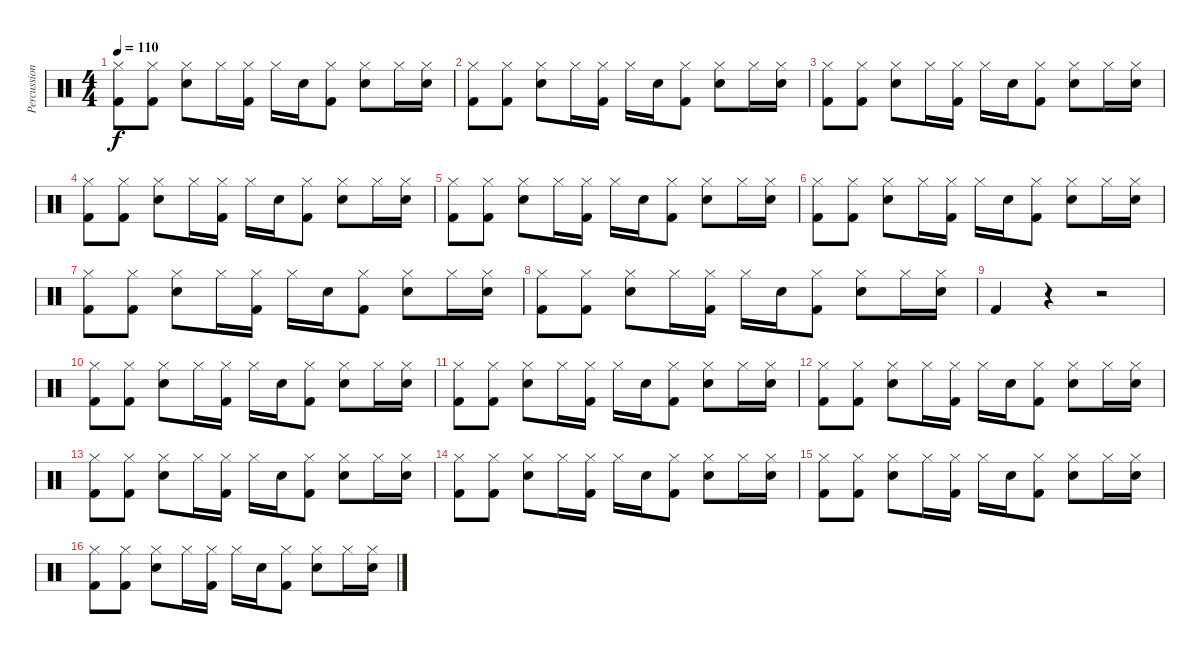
\track ("Percussion" "Percussion") {instrument percussion}
\staff {score}
\articulation defaults
\ts (4 4)
\tempo 110
\clef neutral
\ks c
("Hi-Hat (closed)" "Kick (hit) 2").8{dy f} ("Hi-Hat (closed)" "Kick (hit) 2").8 ("Hi-Hat (closed)" "Snare (hit) 2").8 "Hi-Hat (closed)".16 ("Hi-Hat (closed)" "Kick (hit) 2").16 "Hi-Hat (closed)".16 "Snare (hit) 2".16 ("Hi-Hat (closed)" "Kick (hit) 2").8 ("Hi-Hat (closed)" "Snare (hit) 2").8 "Hi-Hat (closed)".16 ("Hi-Hat (closed)" "Snare (hit) 2").16 |
("Hi-Hat (closed)" "Kick (hit) 2").8 ("Hi-Hat (closed)" "Kick (hit) 2").8 ("Hi-Hat (closed)" "Snare (hit) 2").8 "Hi-Hat (closed)".16 ("Hi-Hat (closed)" "Kick (hit) 2").16 "Hi-Hat (closed)".16 "Snare (hit) 2".16 ("Hi-Hat (closed)" "Kick (hit) 2").8 ("Hi-Hat (closed)" "Snare (hit) 2").8 "Hi-Hat (closed)".16 ("Hi-Hat (closed)" "Snare (hit) 2").16 |
("Hi-Hat (closed)" "Kick (hit) 2").8 ("Hi-Hat (closed)" "Kick (hit) 2").8 ("Hi-Hat (closed)" "Snare (hit) 2").8 "Hi-Hat (closed)".16 ("Hi-Hat (closed)" "Kick (hit) 2").16 "Hi-Hat (closed)".16 "Snare (hit) 2".16 ("Hi-Hat (closed)" "Kick (hit) 2").8 ("Hi-Hat (closed)" "Snare (hit) 2").8 "Hi-Hat (closed)".16 ("Hi-Hat (closed)" "Snare (hit) 2").16 |
("Hi-Hat (closed)" "Kick (hit) 2").8 ("Hi-Hat (closed)" "Kick (hit) 2").8 ("Hi-Hat (closed)" "Snare (hit) 2").8 "Hi-Hat (closed)".16 ("Hi-Hat (closed)" "Kick (hit) 2").16 "Hi-Hat (closed)".16 "Snare (hit) 2".16 ("Hi-Hat (closed)" "Kick (hit) 2").8 ("Hi-Hat (closed)" "Snare (hit) 2").8 "Hi-Hat (closed)".16 ("Hi-Hat (closed)" "Snare (hit) 2").16 |
("Hi-Hat (closed)" "Kick (hit) 2").8 ("Hi-Hat (closed)" "Kick (hit) 2").8 ("Hi-Hat (closed)" "Snare (hit) 2").8 "Hi-Hat (closed)".16 ("Hi-Hat (closed)" "Kick (hit) 2").16 "Hi-Hat (closed)".16 "Snare (hit) 2".16 ("Hi-Hat (closed)" "Kick (hit) 2").8 ("Hi-Hat (closed)" "Snare (hit) 2").8 "Hi-Hat (closed)".16 ("Hi-Hat (closed)" "Snare (hit) 2").16 |
("Hi-Hat (closed)" "Kick (hit) 2").8 ("Hi-Hat (closed)" "Kick (hit) 2").8 ("Hi-Hat (closed)" "Snare (hit) 2").8 "Hi-Hat (closed)".16 ("Hi-Hat (closed)" "Kick (hit) 2").16 "Hi-Hat (closed)".16 "Snare (hit) 2".16 ("Hi-Hat (closed)" "Kick (hit) 2").8 ("Hi-Hat (closed)" "Snare (hit) 2").8 "Hi-Hat (closed)".16 ("Hi-Hat (closed)" "Snare (hit) 2").16 |
("Hi-Hat (closed)" "Kick (hit) 2").8 ("Hi-Hat (closed)" "Kick (hit) 2").8 ("Hi-Hat (closed)" "Snare (hit) 2").8 "Hi-Hat (closed)".16 ("Hi-Hat (closed)" "Kick (hit) 2").16 "Hi-Hat (closed)".16 "Snare (hit) 2".16 ("Hi-Hat (closed)" "Kick (hit) 2").8 ("Hi-Hat (closed)" "Snare (hit) 2").8 "Hi-Hat (closed)".16 ("Hi-Hat (closed)" "Snare (hit) 2").16 |
("Hi-Hat (closed)" "Kick (hit) 2").8 ("Hi-Hat (closed)" "Kick (hit) 2").8 ("Hi-Hat (closed)" "Snare (hit) 2").8 "Hi-Hat (closed)".16 ("Hi-Hat (closed)" "Kick (hit) 2").16 "Hi-Hat (closed)".16 "Snare (hit) 2".16 ("Hi-Hat (closed)" "Kick (hit) 2").8 ("Hi-Hat (closed)" "Snare (hit) 2").8 "Hi-Hat (closed)".16 ("Hi-Hat (closed)" "Snare (hit) 2").16 |
"Kick (hit) 2".4 r.4 r.2 |
("Hi-Hat (closed)" "Kick (hit) 2").8 ("Hi-Hat (closed)" "Kick (hit) 2").8 ("Hi-Hat (closed)" "Snare (hit) 2").8 "Hi-Hat (closed)".16 ("Hi-Hat (closed)" "Kick (hit) 2").16 "Hi-Hat (closed)".16 "Snare (hit) 2".16 ("Hi-Hat (closed)" "Kick (hit) 2").8 ("Hi-Hat (closed)" "Snare (hit) 2").8 "Hi-Hat (closed)".16 ("Hi-Hat (closed)" "Snare (hit) 2").16 |
("Hi-Hat (closed)" "Kick (hit) 2").8 ("Hi-Hat (closed)" "Kick (hit) 2").8 ("Hi-Hat (closed)" "Snare (hit) 2").8 "Hi-Hat (closed)".16 ("Hi-Hat (closed)" "Kick (hit) 2").16 "Hi-Hat (closed)".16 "Snare (hit) 2".16 ("Hi-Hat (closed)" "Kick (hit) 2").8 ("Hi-Hat (closed)" "Snare (hit) 2").8 "Hi-Hat (closed)".16 ("Hi-Hat (closed)" "Snare (hit) 2").16 |
("Hi-Hat (closed)" "Kick (hit) 2").8 ("Hi-Hat (closed)" "Kick (hit) 2").8 ("Hi-Hat (closed)" "Snare (hit) 2").8 "Hi-Hat (closed)".16 ("Hi-Hat (closed)" "Kick (hit) 2").16 "Hi-Hat (closed)".16 "Snare (hit) 2".16 ("Hi-Hat (closed)" "Kick (hit) 2").8 ("Hi-Hat (closed)" "Snare (hit) 2").8 "Hi-Hat (closed)".16 ("Hi-Hat (closed)" "Snare (hit) 2").16 |
("Hi-Hat (closed)" "Kick (hit) 2").8 ("Hi-Hat (closed)" "Kick (hit) 2").8 ("Hi-Hat (closed)" "Snare (hit) 2").8 "Hi-Hat (closed)".16 ("Hi-Hat (closed)" "Kick (hit) 2").16 "Hi-Hat (closed)".16 "Snare (hit) 2".16 ("Hi-Hat (closed)" "Kick (hit) 2").8 ("Hi-Hat (closed)" "Snare (hit) 2").8 "Hi-Hat (closed)".16 ("Hi-Hat (closed)" "Snare (hit) 2").16 |
("Hi-Hat (closed)" "Kick (hit) 2").8 ("Hi-Hat (closed)" "Kick (hit) 2").8 ("Hi-Hat (closed)" "Snare (hit) 2").8 "Hi-Hat (closed)".16 ("Hi-Hat (closed)" "Kick (hit) 2").16 "Hi-Hat (closed)".16 "Snare (hit) 2".16 ("Hi-Hat (closed)" "Kick (hit) 2").8 ("Hi-Hat (closed)" "Snare (hit) 2").8 "Hi-Hat (closed)".16 ("Hi-Hat (closed)" "Snare (hit) 2").16 |
("Hi-Hat (closed)" "Kick (hit) 2").8 ("Hi-Hat (closed)" "Kick (hit) 2").8 ("Hi-Hat (closed)" "Snare (hit) 2").8 "Hi-Hat (closed)".16 ("Hi-Hat (closed)" "Kick (hit) 2").16 "Hi-Hat (closed)".16 "Snare (hit) 2".16 ("Hi-Hat (closed)" "Kick (hit) 2").8 ("Hi-Hat (closed)" "Snare (hit) 2").8 "Hi-Hat (closed)".16 ("Hi-Hat (closed)" "Snare (hit) 2").16 |
("Hi-Hat (closed)" "Kick (hit) 2").8 ("Hi-Hat (closed)" "Kick (hit) 2").8 ("Hi-Hat (closed)" "Snare (hit) 2").8 "Hi-Hat (closed)".16 ("Hi-Hat (closed)" "Kick (hit) 2").16 "Hi-Hat (closed)".16 "Snare (hit) 2".16 ("Hi-Hat (closed)" "Kick (hit) 2").8 ("Hi-Hat (closed)" "Snare (hit) 2").8 "Hi-Hat (closed)".16 ("Hi-Hat (closed)" "Snare (hit) 2").16
